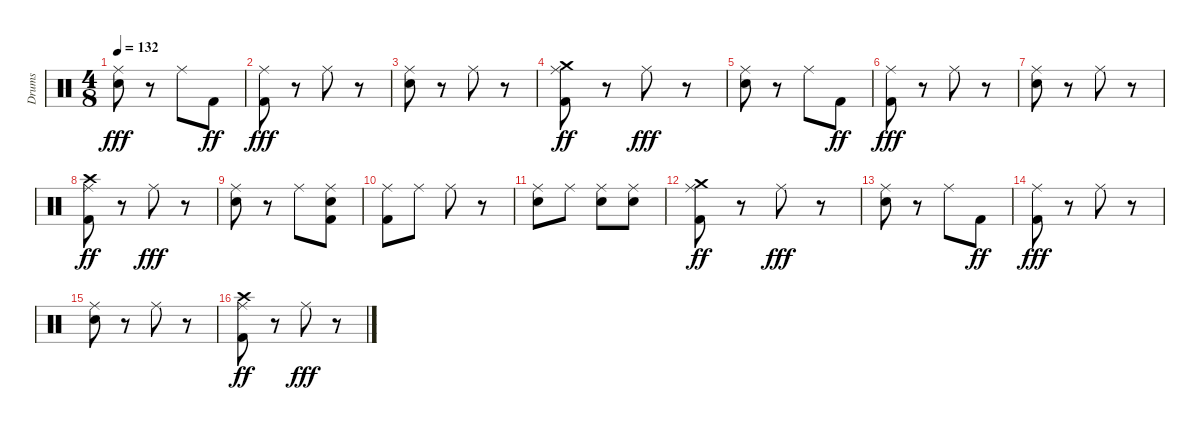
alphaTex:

\track ("Drums" "Drums") {instrument percussion}
\staff {score}
\articulation defaults
\ts (4 8)
\tempo 132
\clef neutral
\ks c
("Snare (hit) 2" "Ride (middle)").8{dy fff} r.8 "Ride (middle)".8 "Kick (hit) 2".8{dy ff} |
("Kick (hit) 2" "Ride (middle)").8{dy fff} r.8 "Ride (middle)".8 r.8 |
("Snare (hit) 2" "Ride (middle)").8 r.8 "Ride (middle)".8 r.8 |
("Kick (hit) 2" "Ride (middle)" "Crash medium (hit)").8{dy ff} r.8 "Ride (middle)".8{dy fff} r.8 |
("Snare (hit) 2" "Ride (middle)").8 r.8 "Ride (middle)".8 "Kick (hit) 2".8{dy ff} |
("Kick (hit) 2" "Ride (middle)").8{dy fff} r.8 "Ride (middle)".8 r.8 |
("Snare (hit) 2" "Ride (middle)").8 r.8 "Ride (middle)".8 r.8 |
("Kick (hit) 2" "Ride (middle)" "Crash high (hit)").8{dy ff} r.8 "Ride (middle)".8{dy fff} r.8 |
("Snare (hit) 2" "Ride (middle)").8 r.8 "Ride (middle)".8 ("Kick (hit) 2" "Snare (hit) 2" "Ride (middle)").8 |
("Kick (hit) 2" "Ride (middle)").8 "Ride (middle)".8 "Ride (middle)".8 r.8 |
("Snare (hit) 2" "Ride (middle)").8 "Ride (middle)".8 ("Snare (hit) 2" "Ride (middle)").8 ("Snare (hit) 2" "Ride (middle)").8 |
("Kick (hit) 2" "Ride (middle)" "Crash medium (hit)").8{dy ff} r.8 "Ride (middle)".8{dy fff} r.8 |
("Snare (hit) 2" "Ride (middle)").8 r.8 "Ride (middle)".8 "Kick (hit) 2".8{dy ff} |
("Kick (hit) 2" "Ride (middle)").8{dy fff} r.8 "Ride (middle)".8 r.8 |
("Snare (hit) 2" "Ride (middle)").8 r.8 "Ride (middle)".8 r.8 |
("Kick (hit) 2" "Ride (middle)" "Crash high (hit)").8{dy ff} r.8 "Ride (middle)".8{dy fff} r.8
